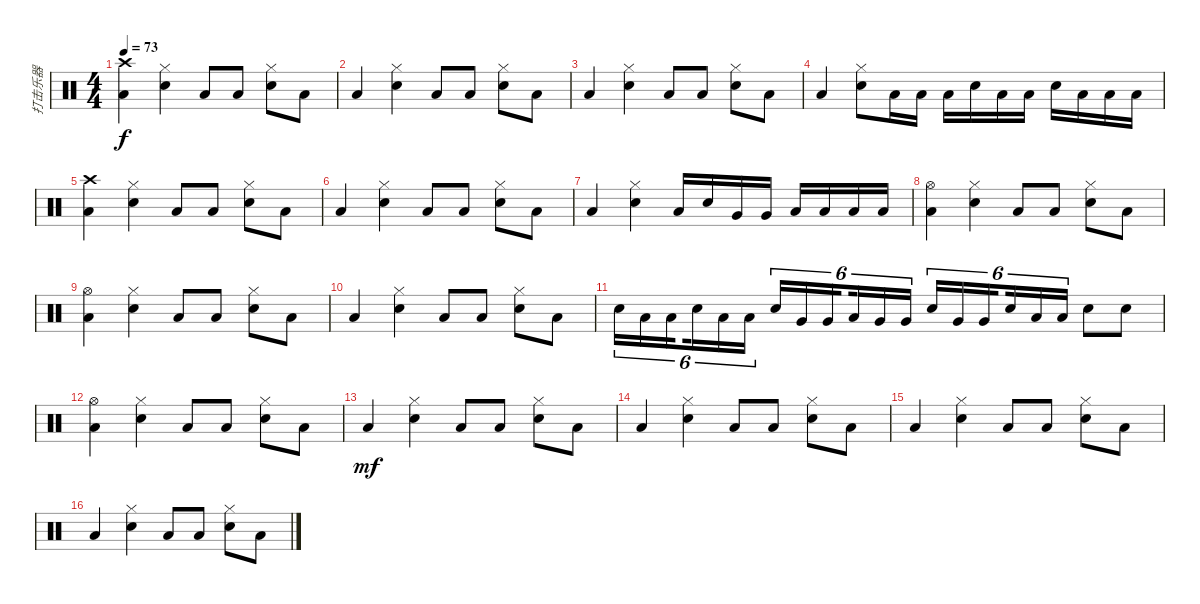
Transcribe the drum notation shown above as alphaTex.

\track ("打击乐器" "打击乐器") {instrument percussion}
\staff {score}
\articulation defaults
\ts (4 4)
\tempo 73
\clef neutral
\ks c
("Crash high (hit)" "Low Floor Tom (hit)").4{dy f} ("Hi-Hat (closed)" "Electric Snare (hit)").4 "Low Floor Tom (hit)".8 "Low Floor Tom (hit)".8 ("Hi-Hat (closed)" "Electric Snare (hit)").8 "Low Floor Tom (hit)".8 |
"Low Floor Tom (hit)".4 ("Hi-Hat (closed)" "Electric Snare (hit)").4 "Low Floor Tom (hit)".8 "Low Floor Tom (hit)".8 ("Hi-Hat (closed)" "Electric Snare (hit)").8 "Low Floor Tom (hit)".8 |
"Low Floor Tom (hit)".4 ("Hi-Hat (closed)" "Electric Snare (hit)").4 "Low Floor Tom (hit)".8 "Low Floor Tom (hit)".8 ("Hi-Hat (closed)" "Electric Snare (hit)").8 "Low Floor Tom (hit)".8 |
"Low Floor Tom (hit)".4 ("Hi-Hat (closed)" "Electric Snare (hit)").8 "Low Floor Tom (hit)".16 "Low Floor Tom (hit)".16 "Low Floor Tom (hit)".16 "Electric Snare (hit)".16 "Low Floor Tom (hit)".16 "Low Floor Tom (hit)".16 "Electric Snare (hit)".16 "Low Floor Tom (hit)".16 "Low Floor Tom (hit)".16 "Low Floor Tom (hit)".16 |
("Crash high (hit)" "Low Floor Tom (hit)").4 ("Hi-Hat (closed)" "Electric Snare (hit)").4 "Low Floor Tom (hit)".8 "Low Floor Tom (hit)".8 ("Hi-Hat (closed)" "Electric Snare (hit)").8 "Low Floor Tom (hit)".8 |
"Low Floor Tom (hit)".4 ("Hi-Hat (closed)" "Electric Snare (hit)").4 "Low Floor Tom (hit)".8 "Low Floor Tom (hit)".8 ("Hi-Hat (closed)" "Electric Snare (hit)").8 "Low Floor Tom (hit)".8 |
"Low Floor Tom (hit)".4 ("Hi-Hat (closed)" "Electric Snare (hit)").4 "Low Floor Tom (hit)".16 "Electric Snare (hit)".16 "Very Low Tom (hit)".16 "Very Low Tom (hit)".16 "Low Floor Tom (hit)".16 "Low Tom (hit)".16 "Low Tom (hit)".16 "Low Tom (hit)".16 |
("Hi-Hat (open)" "Low Floor Tom (hit)").4 ("Hi-Hat (closed)" "Electric Snare (hit)").4 "Low Floor Tom (hit)".8 "Low Floor Tom (hit)".8 ("Hi-Hat (closed)" "Electric Snare (hit)").8 "Low Floor Tom (hit)".8 |
("Hi-Hat (open)" "Low Floor Tom (hit)").4 ("Hi-Hat (closed)" "Electric Snare (hit)").4 "Low Floor Tom (hit)".8 "Low Floor Tom (hit)".8 ("Hi-Hat (closed)" "Electric Snare (hit)").8 "Low Floor Tom (hit)".8 |
"Low Floor Tom (hit)".4 ("Hi-Hat (closed)" "Electric Snare (hit)").4 "Low Floor Tom (hit)".8 "Low Floor Tom (hit)".8 ("Hi-Hat (closed)" "Electric Snare (hit)").8 "Low Floor Tom (hit)".8 |
"Electric Snare (hit)".16{tu (6 4)} "Low Floor Tom (hit)".16{tu (6 4)} "Low Floor Tom (hit)".16{tu (6 4) beam splitsecondary} "Electric Snare (hit)".16{tu (6 4)} "Low Floor Tom (hit)".16{tu (6 4)} "Low Floor Tom (hit)".16{tu (6 4)} "Electric Snare (hit)".16{tu (6 4)} "Very Low Tom (hit)".16{tu (6 4)} "Very Low Tom (hit)".16{tu (6 4) beam splitsecondary} "Low Tom (hit)".16{tu (6 4)} "Very Low Tom (hit)".16{tu (6 4)} "Very Low Tom (hit)".16{tu (6 4)} "Electric Snare (hit)".16{tu (6 4)} "Very Low Tom (hit)".16{tu (6 4)} "Very Low Tom (hit)".16{tu (6 4) beam splitsecondary} "Electric Snare (hit)".16{tu (6 4)} "Low Tom (hit)".16{tu (6 4)} "Low Tom (hit)".16{tu (6 4)} "Electric Snare (hit)".8 "Electric Snare (hit)".8 |
("Hi-Hat (open)" "Low Floor Tom (hit)").4 ("Hi-Hat (closed)" "Electric Snare (hit)").4 "Low Floor Tom (hit)".8 "Low Floor Tom (hit)".8 ("Hi-Hat (closed)" "Electric Snare (hit)").8 "Low Floor Tom (hit)".8 |
"Low Floor Tom (hit)".4{dy mf} ("Hi-Hat (closed)" "Electric Snare (hit)").4 "Low Floor Tom (hit)".8 "Low Floor Tom (hit)".8 ("Hi-Hat (closed)" "Electric Snare (hit)").8 "Low Floor Tom (hit)".8 |
"Low Floor Tom (hit)".4 ("Hi-Hat (closed)" "Electric Snare (hit)").4 "Low Floor Tom (hit)".8 "Low Floor Tom (hit)".8 ("Hi-Hat (closed)" "Electric Snare (hit)").8 "Low Floor Tom (hit)".8 |
"Low Floor Tom (hit)".4 ("Hi-Hat (closed)" "Electric Snare (hit)").4 "Low Floor Tom (hit)".8 "Low Floor Tom (hit)".8 ("Hi-Hat (closed)" "Electric Snare (hit)").8 "Low Floor Tom (hit)".8 |
"Low Floor Tom (hit)".4 ("Hi-Hat (closed)" "Electric Snare (hit)").4 "Low Floor Tom (hit)".8 "Low Floor Tom (hit)".8 ("Hi-Hat (closed)" "Electric Snare (hit)").8 "Low Floor Tom (hit)".8
